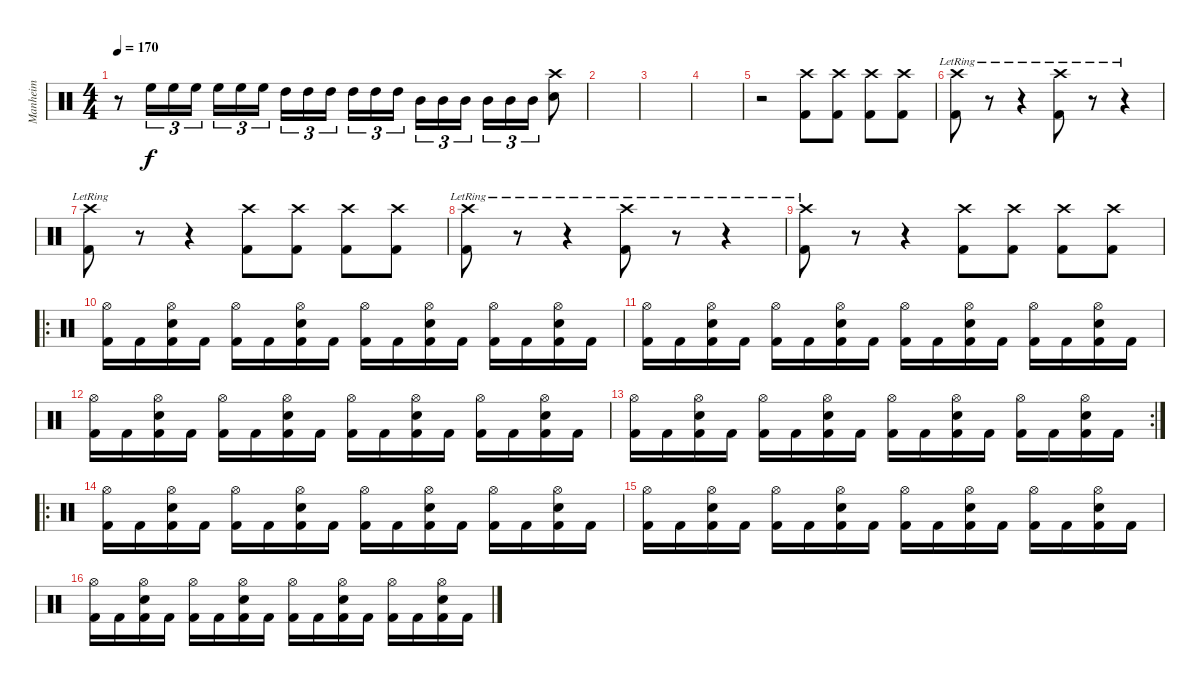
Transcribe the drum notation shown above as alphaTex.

\track ("Manheim" "Manheim") {instrument percussion}
\staff {score}
\articulation defaults
\ts (4 4)
\tempo 170
\clef neutral
\ks c
r.8{dy f} "High Floor Tom (hit)".16{tu (3 2)} "High Floor Tom (hit)".16{tu (3 2)} "High Floor Tom (hit)".16{tu (3 2)} "High Floor Tom (hit)".16{tu (3 2)} "High Floor Tom (hit)".16{tu (3 2)} "High Floor Tom (hit)".16{tu (3 2)} "High Tom (hit)".16{tu (3 2)} "High Tom (hit)".16{tu (3 2)} "High Tom (hit)".16{tu (3 2)} "High Tom (hit)".16{tu (3 2)} "High Tom (hit)".16{tu (3 2)} "High Tom (hit)".16{tu (3 2)} "Mid Tom (hit)".16{tu (3 2)} "Mid Tom (hit)".16{tu (3 2)} "Mid Tom (hit)".16{tu (3 2)} "Mid Tom (hit)".16{tu (3 2)} "Mid Tom (hit)".16{tu (3 2)} "Mid Tom (hit)".16{tu (3 2)} ("Crash high (hit)" "Snare (hit)").8 |
|
|
|
r.2 ("Crash high (hit)" "Kick (hit) 2").8 ("Crash high (hit)" "Kick (hit) 2").8 ("Crash high (hit)" "Kick (hit) 2").8 ("Crash high (hit)" "Kick (hit) 2").8 |
("Crash high (hit)"{lr} "Kick (hit) 2").8 r.8 r.4 ("Crash high (hit)"{lr} "Kick (hit) 2").8 r.8 r.4 |
("Crash high (hit)"{lr} "Kick (hit) 2").8 r.8 r.4 ("Crash high (hit)" "Kick (hit) 2").8 ("Crash high (hit)" "Kick (hit) 2").8 ("Crash high (hit)" "Kick (hit) 2").8 ("Crash high (hit)" "Kick (hit) 2").8 |
("Crash high (hit)"{lr} "Kick (hit) 2").8 r.8 r.4 ("Crash high (hit)"{lr} "Kick (hit) 2").8 r.8 r.4 |
("Crash high (hit)"{lr} "Kick (hit) 2").8 r.8 r.4 ("Crash high (hit)" "Kick (hit) 2").8 ("Crash high (hit)" "Kick (hit) 2").8 ("Crash high (hit)" "Kick (hit) 2").8 ("Crash high (hit)" "Kick (hit) 2").8 |
\ro
("Hi-Hat (open)" "Kick (hit) 2").16 "Kick (hit) 2".16 ("Hi-Hat (open)" "Snare (hit) 2" "Kick (hit) 2").16 "Kick (hit) 2".16 ("Hi-Hat (open)" "Kick (hit) 2").16 "Kick (hit) 2".16 ("Hi-Hat (open)" "Snare (hit) 2" "Kick (hit) 2").16 "Kick (hit) 2".16 ("Hi-Hat (open)" "Kick (hit) 2").16 "Kick (hit) 2".16 ("Hi-Hat (open)" "Snare (hit) 2" "Kick (hit) 2").16 "Kick (hit) 2".16 ("Hi-Hat (open)" "Kick (hit) 2").16 "Kick (hit) 2".16 ("Hi-Hat (open)" "Snare (hit) 2" "Kick (hit) 2").16 "Kick (hit) 2".16 |
("Hi-Hat (open)" "Kick (hit) 2").16 "Kick (hit) 2".16 ("Hi-Hat (open)" "Snare (hit) 2" "Kick (hit) 2").16 "Kick (hit) 2".16 ("Hi-Hat (open)" "Kick (hit) 2").16 "Kick (hit) 2".16 ("Hi-Hat (open)" "Snare (hit) 2" "Kick (hit) 2").16 "Kick (hit) 2".16 ("Hi-Hat (open)" "Kick (hit) 2").16 "Kick (hit) 2".16 ("Hi-Hat (open)" "Snare (hit) 2" "Kick (hit) 2").16 "Kick (hit) 2".16 ("Hi-Hat (open)" "Kick (hit) 2").16 "Kick (hit) 2".16 ("Hi-Hat (open)" "Snare (hit) 2" "Kick (hit) 2").16 "Kick (hit) 2".16 |
("Hi-Hat (open)" "Kick (hit) 2").16 "Kick (hit) 2".16 ("Hi-Hat (open)" "Snare (hit) 2" "Kick (hit) 2").16 "Kick (hit) 2".16 ("Hi-Hat (open)" "Kick (hit) 2").16 "Kick (hit) 2".16 ("Hi-Hat (open)" "Snare (hit) 2" "Kick (hit) 2").16 "Kick (hit) 2".16 ("Hi-Hat (open)" "Kick (hit) 2").16 "Kick (hit) 2".16 ("Hi-Hat (open)" "Snare (hit) 2" "Kick (hit) 2").16 "Kick (hit) 2".16 ("Hi-Hat (open)" "Kick (hit) 2").16 "Kick (hit) 2".16 ("Hi-Hat (open)" "Snare (hit) 2" "Kick (hit) 2").16 "Kick (hit) 2".16 |
\rc 2
("Hi-Hat (open)" "Kick (hit) 2").16 "Kick (hit) 2".16 ("Hi-Hat (open)" "Snare (hit) 2" "Kick (hit) 2").16 "Kick (hit) 2".16 ("Hi-Hat (open)" "Kick (hit) 2").16 "Kick (hit) 2".16 ("Hi-Hat (open)" "Snare (hit) 2" "Kick (hit) 2").16 "Kick (hit) 2".16 ("Hi-Hat (open)" "Kick (hit) 2").16 "Kick (hit) 2".16 ("Hi-Hat (open)" "Snare (hit) 2" "Kick (hit) 2").16 "Kick (hit) 2".16 ("Hi-Hat (open)" "Kick (hit) 2").16 "Kick (hit) 2".16 ("Hi-Hat (open)" "Snare (hit) 2" "Kick (hit) 2").16 "Kick (hit) 2".16 |
\ro
("Hi-Hat (open)" "Kick (hit) 2").16 "Kick (hit) 2".16 ("Hi-Hat (open)" "Snare (hit) 2" "Kick (hit) 2").16 "Kick (hit) 2".16 ("Hi-Hat (open)" "Kick (hit) 2").16 "Kick (hit) 2".16 ("Hi-Hat (open)" "Snare (hit) 2" "Kick (hit) 2").16 "Kick (hit) 2".16 ("Hi-Hat (open)" "Kick (hit) 2").16 "Kick (hit) 2".16 ("Hi-Hat (open)" "Snare (hit) 2" "Kick (hit) 2").16 "Kick (hit) 2".16 ("Hi-Hat (open)" "Kick (hit) 2").16 "Kick (hit) 2".16 ("Hi-Hat (open)" "Snare (hit) 2" "Kick (hit) 2").16 "Kick (hit) 2".16 |
("Hi-Hat (open)" "Kick (hit) 2").16 "Kick (hit) 2".16 ("Hi-Hat (open)" "Snare (hit) 2" "Kick (hit) 2").16 "Kick (hit) 2".16 ("Hi-Hat (open)" "Kick (hit) 2").16 "Kick (hit) 2".16 ("Hi-Hat (open)" "Snare (hit) 2" "Kick (hit) 2").16 "Kick (hit) 2".16 ("Hi-Hat (open)" "Kick (hit) 2").16 "Kick (hit) 2".16 ("Hi-Hat (open)" "Snare (hit) 2" "Kick (hit) 2").16 "Kick (hit) 2".16 ("Hi-Hat (open)" "Kick (hit) 2").16 "Kick (hit) 2".16 ("Hi-Hat (open)" "Snare (hit) 2" "Kick (hit) 2").16 "Kick (hit) 2".16 |
("Hi-Hat (open)" "Kick (hit) 2").16 "Kick (hit) 2".16 ("Hi-Hat (open)" "Snare (hit) 2" "Kick (hit) 2").16 "Kick (hit) 2".16 ("Hi-Hat (open)" "Kick (hit) 2").16 "Kick (hit) 2".16 ("Hi-Hat (open)" "Snare (hit) 2" "Kick (hit) 2").16 "Kick (hit) 2".16 ("Hi-Hat (open)" "Kick (hit) 2").16 "Kick (hit) 2".16 ("Hi-Hat (open)" "Snare (hit) 2" "Kick (hit) 2").16 "Kick (hit) 2".16 ("Hi-Hat (open)" "Kick (hit) 2").16 "Kick (hit) 2".16 ("Hi-Hat (open)" "Snare (hit) 2" "Kick (hit) 2").16 "Kick (hit) 2".16
